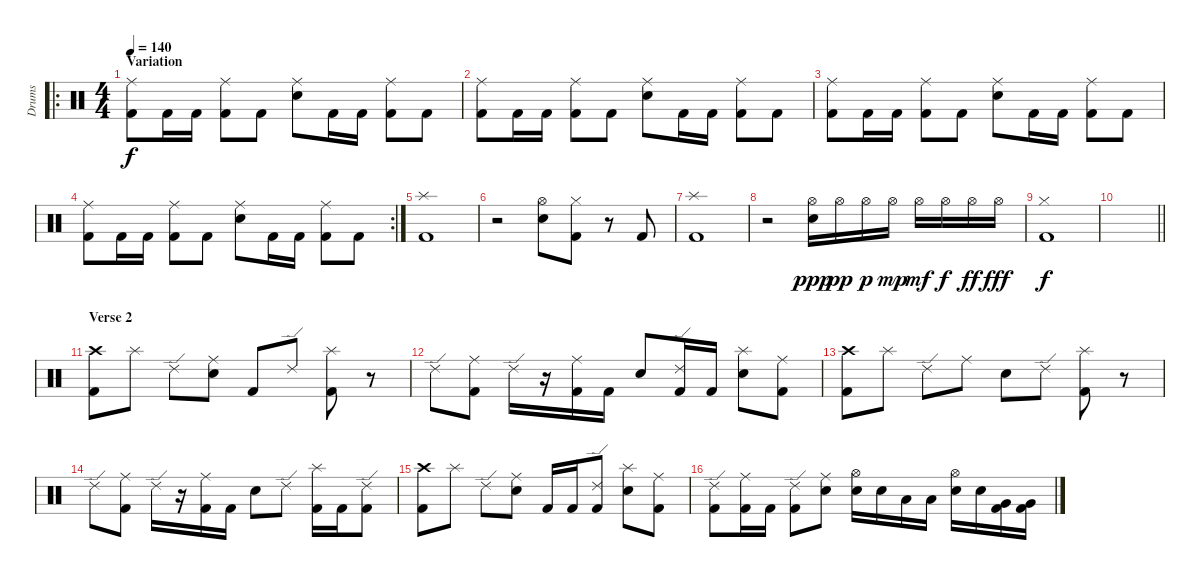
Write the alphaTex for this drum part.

\track ("Drums" "Drums") {instrument percussion}
\staff {score}
\articulation defaults
\ro
\ts (4 4)
\section ("" "Variation")
\tempo 140
\clef neutral
\ks c
("Ride (middle)" "Kick (hit) 2").8{dy f} "Kick (hit) 2".16 "Kick (hit) 2".16 ("Ride (middle)" "Kick (hit) 2").8 "Kick (hit) 2".8 ("Ride (middle)" "Snare (hit) 2").8 "Kick (hit) 2".16 "Kick (hit) 2".16 ("Ride (middle)" "Kick (hit) 2").8 "Kick (hit) 2".8 |
("Ride (middle)" "Kick (hit) 2").8 "Kick (hit) 2".16 "Kick (hit) 2".16 ("Ride (middle)" "Kick (hit) 2").8 "Kick (hit) 2".8 ("Ride (middle)" "Snare (hit) 2").8 "Kick (hit) 2".16 "Kick (hit) 2".16 ("Ride (middle)" "Kick (hit) 2").8 "Kick (hit) 2".8 |
("Ride (middle)" "Kick (hit) 2").8 "Kick (hit) 2".16 "Kick (hit) 2".16 ("Ride (middle)" "Kick (hit) 2").8 "Kick (hit) 2".8 ("Ride (middle)" "Snare (hit) 2").8 "Kick (hit) 2".16 "Kick (hit) 2".16 ("Ride (middle)" "Kick (hit) 2").8 "Kick (hit) 2".8 |
\rc 2
("Ride (middle)" "Kick (hit) 2").8 "Kick (hit) 2".16 "Kick (hit) 2".16 ("Ride (middle)" "Kick (hit) 2").8 "Kick (hit) 2".8 ("Ride (middle)" "Snare (hit) 2").8 "Kick (hit) 2".16 "Kick (hit) 2".16 ("Ride (middle)" "Kick (hit) 2").8 "Kick (hit) 2".8 |
("Splash (hit)" "Kick (hit) 2").1 |
r.2 ("Hi-Hat (open)" "Snare (hit) 2").8 ("Hi-Hat (closed)" "Kick (hit) 2").8 r.8 "Kick (hit) 2".8 |
("Splash (hit)" "Kick (hit) 2").1 |
r.2 ("Hi-Hat (open)" "Snare (hit) 2").16{dy ppp} "Hi-Hat (open)".16{dy pp} "Hi-Hat (open)".16{dy p} "Hi-Hat (open)".16{dy mp} "Hi-Hat (open)".16{dy mf} "Hi-Hat (open)".16{dy f} "Hi-Hat (open)".16{dy ff} "Hi-Hat (open)".16{dy fff} |
("Hi-Hat (closed)" "Kick (hit) 2").1{dy f} |
\barLineRight lightlight
|
\section ("" "Verse 2")
("Crash high (hit)" "Kick (hit) 2").8 "Splash (hit)".8 "Ride (edge) 2".8 ("Ride (middle)" "Snare (hit) 2").8 "Kick (hit) 2".8 "Ride (edge) 2".8 ("Splash (hit)" "Kick (hit) 2").8 r.8 |
"Ride (edge) 2".8 ("Ride (middle)" "Kick (hit) 2").8 "Ride (edge) 2".16 r.16 ("Ride (middle)" "Kick (hit) 2").16 "Kick (hit) 2".16 "Snare (hit) 2".8 ("Ride (edge) 2" "Kick (hit) 2").16 "Kick (hit) 2".16 ("Splash (hit)" "Snare (hit) 2").8 ("Ride (middle)" "Kick (hit) 2").8 |
("Crash high (hit)" "Kick (hit) 2").8 "Splash (hit)".8 "Ride (edge) 2".8 "Ride (middle)".8 "Snare (hit) 2".8 "Ride (edge) 2".8 ("Splash (hit)" "Kick (hit) 2").8 r.8 |
"Ride (edge) 2".8 ("Ride (middle)" "Kick (hit) 2").8 "Ride (edge) 2".16 r.16 ("Ride (middle)" "Kick (hit) 2").16 "Kick (hit) 2".16 "Snare (hit) 2".8 "Ride (edge) 2".8 ("Splash (hit)" "Kick (hit) 2").16 "Kick (hit) 2".16 ("Ride (edge) 2" "Kick (hit) 2").8 |
("Crash high (hit)" "Kick (hit) 2").8 "Splash (hit)".8 "Ride (edge) 2".8 ("Ride (middle)" "Snare (hit) 2").8 "Kick (hit) 2".16 "Kick (hit) 2".16 ("Ride (edge) 2" "Kick (hit) 2").8 ("Splash (hit)" "Snare (hit) 2").8 ("Ride (middle)" "Kick (hit) 2").8 |
("Ride (edge) 2" "Kick (hit) 2").8 ("Ride (middle)" "Kick (hit) 2").16 "Kick (hit) 2".16 ("Ride (edge) 2" "Kick (hit) 2").8 ("Ride (middle)" "Snare (hit) 2").8 ("Hi-Hat (open)" "Snare (hit) 2").16 "Snare (hit) 2".16 "Low Tom (hit)".16 "Low Tom (hit)".16 ("Hi-Hat (open)" "Snare (hit) 2").16 "Snare (hit) 2".16 ("Very Low Tom (hit)" "Kick (hit) 2").16 ("Very Low Tom (hit)" "Kick (hit) 2").16
